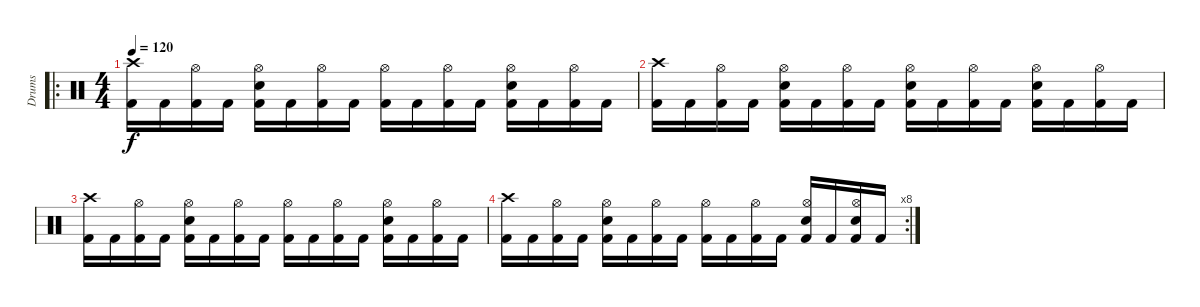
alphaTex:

\track ("Drums" "Drums") {instrument percussion}
\staff {score}
\articulation defaults
\ro
\ts (4 4)
\tempo 120
\clef neutral
\ks c
("Crash high (hit)" "Kick (hit) 2").16{dy f} "Kick (hit) 2".16 ("Hi-Hat (open)" "Kick (hit) 2").16 "Kick (hit) 2".16 ("Hi-Hat (open)" "Snare (hit) 2" "Kick (hit) 2").16 "Kick (hit) 2".16 ("Hi-Hat (open)" "Kick (hit) 2").16 "Kick (hit) 2".16 ("Hi-Hat (open)" "Kick (hit) 2").16 "Kick (hit) 2".16 ("Hi-Hat (open)" "Kick (hit) 2").16 "Kick (hit) 2".16 ("Hi-Hat (open)" "Snare (hit) 2" "Kick (hit) 2").16 "Kick (hit) 2".16 ("Hi-Hat (open)" "Kick (hit) 2").16 "Kick (hit) 2".16 |
("Crash high (hit)" "Kick (hit) 2").16 "Kick (hit) 2".16 ("Hi-Hat (open)" "Kick (hit) 2").16 "Kick (hit) 2".16 ("Hi-Hat (open)" "Snare (hit) 2" "Kick (hit) 2").16 "Kick (hit) 2".16 ("Hi-Hat (open)" "Kick (hit) 2").16 "Kick (hit) 2".16 ("Hi-Hat (open)" "Snare (hit) 2" "Kick (hit) 2").16 "Kick (hit) 2".16 ("Hi-Hat (open)" "Kick (hit) 2").16 "Kick (hit) 2".16 ("Hi-Hat (open)" "Snare (hit) 2" "Kick (hit) 2").16 "Kick (hit) 2".16 ("Hi-Hat (open)" "Kick (hit) 2").16 "Kick (hit) 2".16 |
("Crash high (hit)" "Kick (hit) 2").16 "Kick (hit) 2".16 ("Hi-Hat (open)" "Kick (hit) 2").16 "Kick (hit) 2".16 ("Hi-Hat (open)" "Snare (hit) 2" "Kick (hit) 2").16 "Kick (hit) 2".16 ("Hi-Hat (open)" "Kick (hit) 2").16 "Kick (hit) 2".16 ("Hi-Hat (open)" "Kick (hit) 2").16 "Kick (hit) 2".16 ("Hi-Hat (open)" "Kick (hit) 2").16 "Kick (hit) 2".16 ("Hi-Hat (open)" "Snare (hit) 2" "Kick (hit) 2").16 "Kick (hit) 2".16 ("Hi-Hat (open)" "Kick (hit) 2").16 "Kick (hit) 2".16 |
\rc 8
("Crash high (hit)" "Kick (hit) 2").16 "Kick (hit) 2".16 ("Hi-Hat (open)" "Kick (hit) 2").16 "Kick (hit) 2".16 ("Hi-Hat (open)" "Snare (hit) 2" "Kick (hit) 2").16 "Kick (hit) 2".16 ("Hi-Hat (open)" "Kick (hit) 2").16 "Kick (hit) 2".16 ("Hi-Hat (open)" "Kick (hit) 2").16 "Kick (hit) 2".16 ("Hi-Hat (open)" "Kick (hit) 2").16 "Kick (hit) 2".16 ("Hi-Hat (open)" "Snare (hit) 2" "Kick (hit) 2").16 "Kick (hit) 2".16 ("Hi-Hat (open)" "Snare (hit) 2" "Kick (hit) 2").16 "Kick (hit) 2".16
